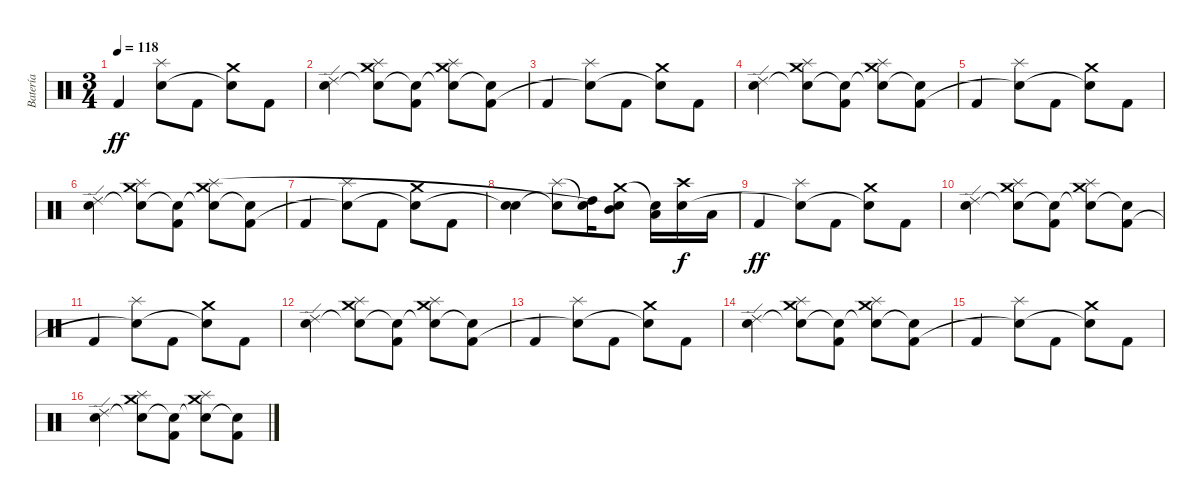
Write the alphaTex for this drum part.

\track ("Batería" "Batería") {instrument percussion}
\staff {score}
\articulation defaults
\ts (3 4)
\tempo 118
\clef neutral
\ks c "Kick (hit) 2".4{dy ff volume 16}
("Splash (hit)" "Snare (hit)"{t}).8 "Kick (hit) 2".8 ("Crash medium (hit)" "Snare (hit)"{t}).8 "Kick (hit) 2".8 |
("Snare (hit) 2" "Ride (edge) 2").4 ("Snare (hit)"{t} "Splash (hit)" "Crash medium (hit)").8 ("Snare (hit)"{t} "Kick (hit) 2").8 ("Snare (hit)"{t} "Crash medium (hit)" "Splash (hit)").8 ("Snare (hit)"{t} "Kick (hit) 2").8 |
"Kick (hit) 2".4{volume 16} ("Splash (hit)" "Snare (hit)"{t}).8 "Kick (hit) 2".8 ("Crash medium (hit)" "Snare (hit)"{t}).8 "Kick (hit) 2".8 |
("Snare (hit) 2" "Ride (edge) 2").4 ("Snare (hit)"{t} "Splash (hit)" "Crash medium (hit)").8 ("Snare (hit)"{t} "Kick (hit) 2").8 ("Snare (hit)"{t} "Crash medium (hit)" "Splash (hit)").8 ("Snare (hit)"{t} "Kick (hit) 2").8 |
"Kick (hit) 2".4{volume 16} ("Splash (hit)" "Snare (hit)"{t}).8 "Kick (hit) 2".8 ("Crash medium (hit)" "Snare (hit)"{t}).8 "Kick (hit) 2".8 |
("Snare (hit) 2" "Ride (edge) 2").4 ("Snare (hit)"{t} "Splash (hit)" "Crash medium (hit)").8 ("Snare (hit)"{t} "Kick (hit) 2").8 ("Snare (hit)"{t} "Crash medium (hit)" "Splash (hit)").8 ("Snare (hit)"{t} "Kick (hit) 2").8 |
"Kick (hit) 2".4{volume 16} ("Splash (hit)" "Snare (hit)"{t}).8 "Kick (hit) 2".8 ("Crash medium (hit)" "Snare (hit)"{t}).8 "Kick (hit) 2".8 |
("Snare (hit) 2" "Snare (hit)"{t}).4 ("Splash (hit)" "Snare (hit)"{t}).8 ("Snare (hit)"{t} "High Tom (hit)").16 ("Crash medium (hit)" "Mid Tom (hit)" "Snare (hit)"{t}).8 ("Snare (hit)"{t} "Low Tom (hit)").16 ("Crash high (hit)" "Snare (hit) 2").16{dy f} "Low Floor Tom (hit)".16 |
"Kick (hit) 2".4{dy ff volume 16} ("Splash (hit)" "Snare (hit)"{t}).8 "Kick (hit) 2".8 ("Crash medium (hit)" "Snare (hit)"{t}).8 "Kick (hit) 2".8 |
("Snare (hit) 2" "Ride (edge) 2").4 ("Snare (hit)"{t} "Splash (hit)" "Crash medium (hit)").8 ("Snare (hit)"{t} "Kick (hit) 2").8 ("Snare (hit)"{t} "Crash medium (hit)" "Splash (hit)").8 ("Snare (hit)"{t} "Kick (hit) 2").8 |
"Kick (hit) 2".4{volume 16} ("Splash (hit)" "Snare (hit)"{t}).8 "Kick (hit) 2".8 ("Crash medium (hit)" "Snare (hit)"{t}).8 "Kick (hit) 2".8 |
("Snare (hit) 2" "Ride (edge) 2").4 ("Snare (hit)"{t} "Splash (hit)" "Crash medium (hit)").8 ("Snare (hit)"{t} "Kick (hit) 2").8 ("Snare (hit)"{t} "Crash medium (hit)" "Splash (hit)").8 ("Snare (hit)"{t} "Kick (hit) 2").8 |
"Kick (hit) 2".4{volume 16} ("Splash (hit)" "Snare (hit)"{t}).8 "Kick (hit) 2".8 ("Crash medium (hit)" "Snare (hit)"{t}).8 "Kick (hit) 2".8 |
("Snare (hit) 2" "Ride (edge) 2").4 ("Snare (hit)"{t} "Splash (hit)" "Crash medium (hit)").8 ("Snare (hit)"{t} "Kick (hit) 2").8 ("Snare (hit)"{t} "Crash medium (hit)" "Splash (hit)").8 ("Snare (hit)"{t} "Kick (hit) 2").8 |
"Kick (hit) 2".4{volume 16} ("Splash (hit)" "Snare (hit)"{t}).8 "Kick (hit) 2".8 ("Crash medium (hit)" "Snare (hit)"{t}).8 "Kick (hit) 2".8 |
("Snare (hit) 2" "Ride (edge) 2").4 ("Snare (hit)"{t} "Splash (hit)" "Crash medium (hit)").8 ("Snare (hit)"{t} "Kick (hit) 2").8 ("Snare (hit)"{t} "Crash medium (hit)" "Splash (hit)").8 ("Snare (hit)"{t} "Kick (hit) 2").8
